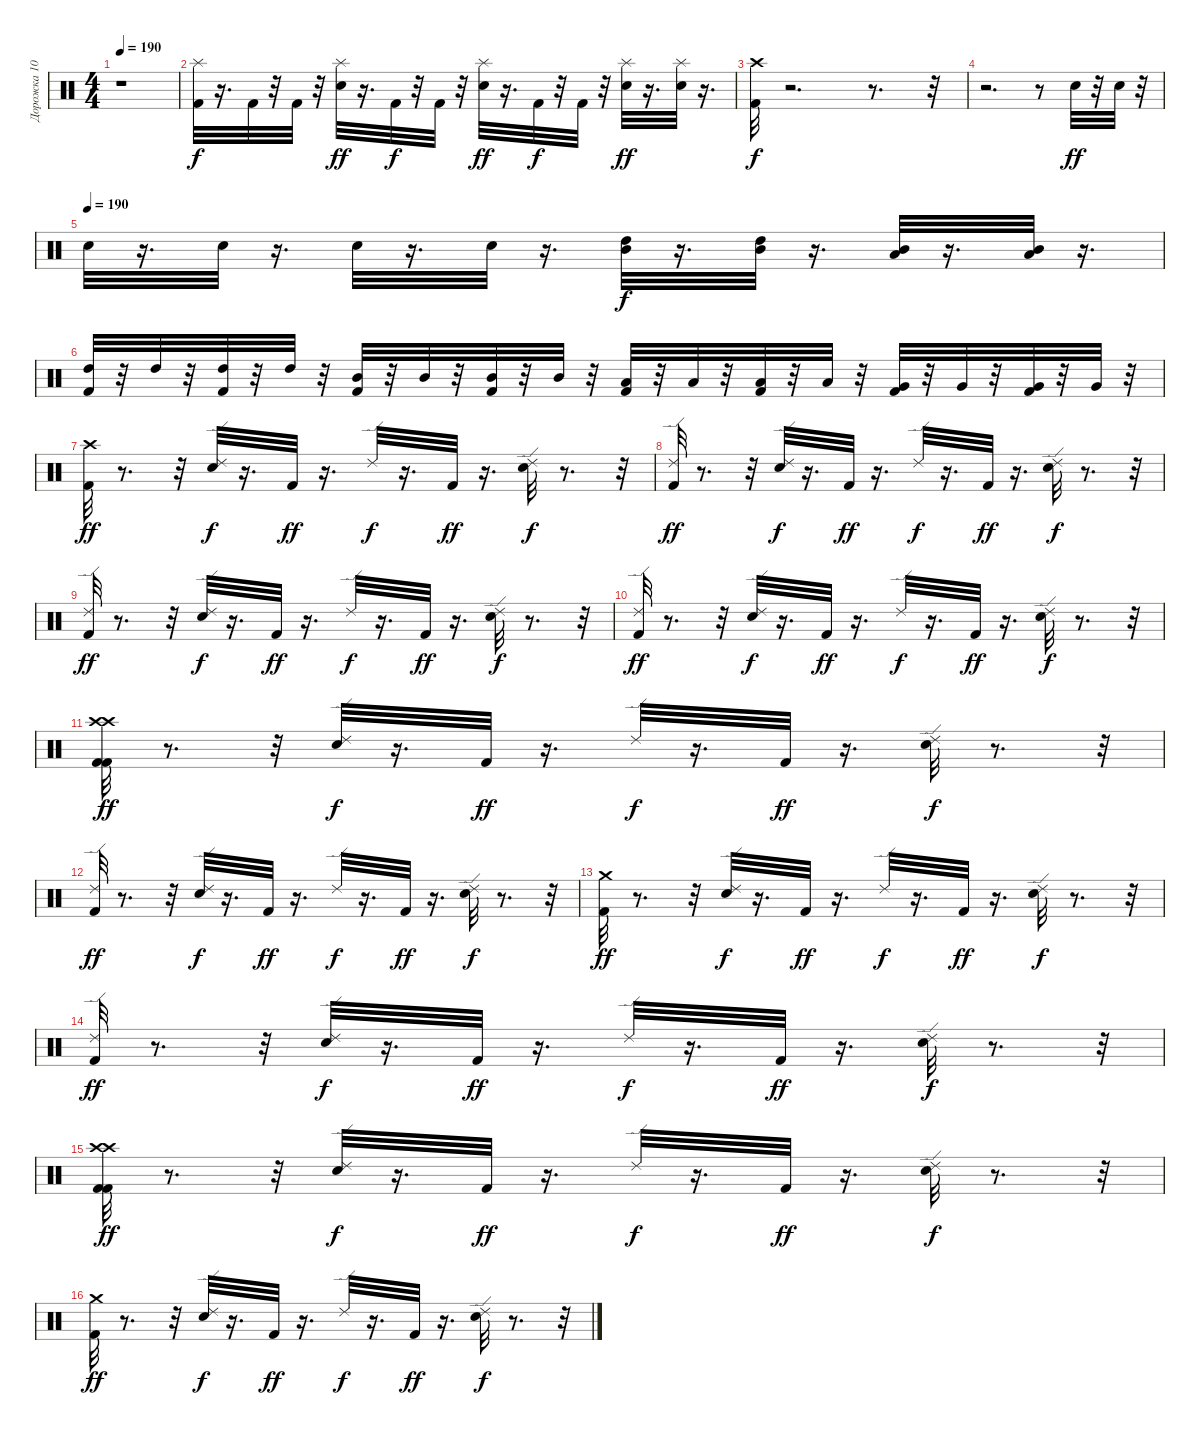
\track ("Дорожка 10" "Дорожка 10") {instrument percussion}
\staff {score}
\articulation defaults
\ts (4 4)
\tempo 190
\clef neutral
\ks c
r.1{dy f} |
("Splash (hit)" "Kick (hit) 2").32 r.16{d} "Kick (hit) 2".32 r.32 "Kick (hit) 2".32 r.32 ("Splash (hit)" "Snare (hit) 2").32{dy ff} r.16{d} "Kick (hit) 2".32{dy f} r.32 "Kick (hit) 2".32 r.32 ("Splash (hit)" "Snare (hit) 2").32{dy ff} r.16{d} "Kick (hit) 2".32{dy f} r.32 "Kick (hit) 2".32 r.32 ("Splash (hit)" "Snare (hit) 2").32{dy ff} r.16{d} ("Splash (hit)" "Snare (hit) 2").32 r.16{d} |
("Crash high (hit)" "Kick (hit) 2").32{dy f} r.2{d} r.8{d} r.32 |
r.2{d} r.8 "Snare (hit) 2".32{dy ff} r.32 "Snare (hit) 2".32 r.32 |
\tempo (190)
"Snare (hit) 2".32 r.16{d} "Snare (hit) 2".32 r.16{d} "Snare (hit) 2".32 r.16{d} "Snare (hit) 2".32 r.16{d} ("Mid Tom (hit)" "High Tom (hit)").32{dy f} r.16{d} ("Mid Tom (hit)" "High Tom (hit)").32 r.16{d} ("Low Tom (hit)" "Mid Tom (hit)").32 r.16{d} ("Low Tom (hit)" "Mid Tom (hit)").32 r.16{d} |
("High Tom (hit)" "Kick (hit) 2").32 r.32 "High Tom (hit)".32 r.32 ("High Tom (hit)" "Kick (hit) 2").32 r.32 "High Tom (hit)".32 r.32 ("Mid Tom (hit)" "Kick (hit) 2").32 r.32 "Mid Tom (hit)".32 r.32 ("Mid Tom (hit)" "Kick (hit) 2").32 r.32 "Mid Tom (hit)".32 r.32 ("Low Tom (hit)" "Kick (hit) 2").32 r.32 "Low Tom (hit)".32 r.32 ("Low Tom (hit)" "Kick (hit) 2").32 r.32 "Low Tom (hit)".32 r.32 ("Very Low Tom (hit)" "Kick (hit) 2").32 r.32 "Very Low Tom (hit)".32 r.32 ("Very Low Tom (hit)" "Kick (hit) 2").32 r.32 "Very Low Tom (hit)".32 r.32 |
("Crash high (hit)" "Kick (hit) 2").32{dy ff} r.8{d} r.32 ("Ride (edge) 2" "Electric Snare (hit)").32{dy f} r.16{d} "Kick (hit) 2".32{dy ff} r.16{d} "Ride (edge) 2".32{dy f} r.16{d} "Kick (hit) 2".32{dy ff} r.16{d} ("Ride (edge) 2" "Electric Snare (hit)").32{dy f} r.8{d} r.32 |
("Kick (hit) 2" "Ride (edge) 2").32{dy ff} r.8{d} r.32 ("Electric Snare (hit)" "Ride (edge) 2").32{dy f} r.16{d} "Kick (hit) 2".32{dy ff} r.16{d} "Ride (edge) 2".32{dy f} r.16{d} "Kick (hit) 2".32{dy ff} r.16{d} ("Electric Snare (hit)" "Ride (edge) 2").32{dy f} r.8{d} r.32 |
("Ride (edge) 2" "Kick (hit) 2").32{dy ff} r.8{d} r.32 ("Ride (edge) 2" "Electric Snare (hit)").32{dy f} r.16{d} "Kick (hit) 2".32{dy ff} r.16{d} "Ride (edge) 2".32{dy f} r.16{d} "Kick (hit) 2".32{dy ff} r.16{d} ("Ride (edge) 2" "Electric Snare (hit)").32{dy f} r.8{d} r.32 |
("Ride (edge) 2" "Kick (hit) 2").32{dy ff} r.8{d} r.32 ("Ride (edge) 2" "Electric Snare (hit)").32{dy f} r.16{d} "Kick (hit) 2".32{dy ff} r.16{d} "Ride (edge) 2".32{dy f} r.16{d} "Kick (hit) 2".32{dy ff} r.16{d} ("Ride (edge) 2" "Electric Snare (hit)").32{dy f} r.8{d} r.32 |
("Crash high (hit)" "Kick (hit) 2" "Crash high (hit)" "Kick (hit) 2").32{dy ff} r.8{d} r.32 ("Ride (edge) 2" "Electric Snare (hit)").32{dy f} r.16{d} "Kick (hit) 2".32{dy ff} r.16{d} "Ride (edge) 2".32{dy f} r.16{d} "Kick (hit) 2".32{dy ff} r.16{d} ("Ride (edge) 2" "Electric Snare (hit)").32{dy f} r.8{d} r.32 |
("Kick (hit) 2" "Ride (edge) 2").32{dy ff} r.8{d} r.32 ("Electric Snare (hit)" "Ride (edge) 2").32{dy f} r.16{d} "Kick (hit) 2".32{dy ff} r.16{d} "Ride (edge) 2".32{dy f} r.16{d} "Kick (hit) 2".32{dy ff} r.16{d} ("Electric Snare (hit)" "Ride (edge) 2").32{dy f} r.8{d} r.32 |
("Crash medium (hit)" "Kick (hit) 2").32{dy ff} r.8{d} r.32 ("Ride (edge) 2" "Electric Snare (hit)").32{dy f} r.16{d} "Kick (hit) 2".32{dy ff} r.16{d} "Ride (edge) 2".32{dy f} r.16{d} "Kick (hit) 2".32{dy ff} r.16{d} ("Ride (edge) 2" "Electric Snare (hit)").32{dy f} r.8{d} r.32 |
("Ride (edge) 2" "Kick (hit) 2").32{dy ff} r.8{d} r.32 ("Ride (edge) 2" "Electric Snare (hit)").32{dy f} r.16{d} "Kick (hit) 2".32{dy ff} r.16{d} "Ride (edge) 2".32{dy f} r.16{d} "Kick (hit) 2".32{dy ff} r.16{d} ("Ride (edge) 2" "Electric Snare (hit)").32{dy f} r.8{d} r.32 |
("Crash high (hit)" "Kick (hit) 2" "Crash high (hit)" "Kick (hit) 2").32{dy ff} r.8{d} r.32 ("Ride (edge) 2" "Electric Snare (hit)").32{dy f} r.16{d} "Kick (hit) 2".32{dy ff} r.16{d} "Ride (edge) 2".32{dy f} r.16{d} "Kick (hit) 2".32{dy ff} r.16{d} ("Ride (edge) 2" "Electric Snare (hit)").32{dy f} r.8{d} r.32 |
("Kick (hit) 2" "Crash medium (hit)").32{dy ff} r.8{d} r.32 ("Electric Snare (hit)" "Ride (edge) 2").32{dy f} r.16{d} "Kick (hit) 2".32{dy ff} r.16{d} "Ride (edge) 2".32{dy f} r.16{d} "Kick (hit) 2".32{dy ff} r.16{d} ("Electric Snare (hit)" "Ride (edge) 2").32{dy f} r.8{d} r.32
